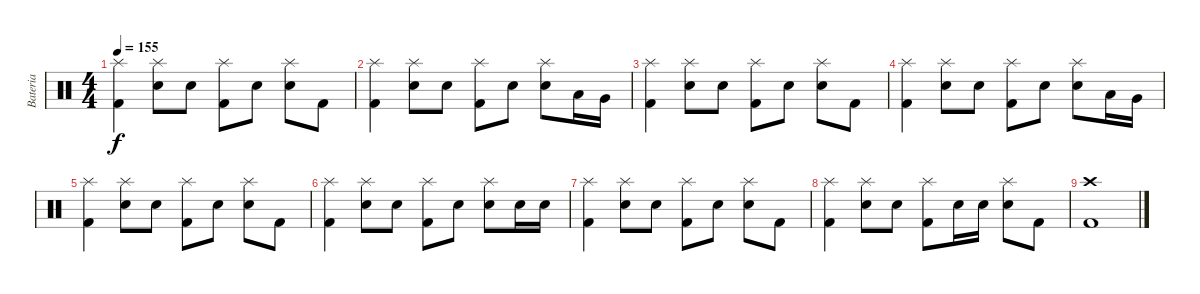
\track ("Bateria" "Bateria") {instrument percussion}
\staff {score}
\articulation defaults
\ts (4 4)
\tempo 155
\clef neutral
\ks c
("Splash (hit)" "Kick (hit) 2").4{dy f} ("Splash (hit)" "Electric Snare (hit)").8 "Electric Snare (hit)".8 ("Splash (hit)" "Kick (hit) 2").8 "Electric Snare (hit)".8 ("Splash (hit)" "Electric Snare (hit)").8 "Kick (hit) 2".8 |
("Splash (hit)" "Kick (hit) 2").4 ("Splash (hit)" "Electric Snare (hit)").8 "Electric Snare (hit)".8 ("Splash (hit)" "Kick (hit) 2").8 "Electric Snare (hit)".8 ("Splash (hit)" "Electric Snare (hit)").8 "Low Tom (hit)".16 "Very Low Tom (hit)".16 |
("Splash (hit)" "Kick (hit) 2").4 ("Splash (hit)" "Electric Snare (hit)").8 "Electric Snare (hit)".8 ("Splash (hit)" "Kick (hit) 2").8 "Electric Snare (hit)".8 ("Splash (hit)" "Electric Snare (hit)").8 "Kick (hit) 2".8 |
("Splash (hit)" "Kick (hit) 2").4 ("Splash (hit)" "Electric Snare (hit)").8 "Electric Snare (hit)".8 ("Splash (hit)" "Kick (hit) 2").8 "Electric Snare (hit)".8 ("Splash (hit)" "Electric Snare (hit)").8 "Low Tom (hit)".16 "Very Low Tom (hit)".16 |
("Splash (hit)" "Kick (hit) 2").4 ("Splash (hit)" "Electric Snare (hit)").8 "Electric Snare (hit)".8 ("Splash (hit)" "Kick (hit) 2").8 "Electric Snare (hit)".8 ("Splash (hit)" "Electric Snare (hit)").8 "Kick (hit) 2".8 |
("Splash (hit)" "Kick (hit) 2").4 ("Splash (hit)" "Electric Snare (hit)").8 "Electric Snare (hit)".8 ("Splash (hit)" "Kick (hit) 2").8 "Electric Snare (hit)".8 ("Splash (hit)" "Electric Snare (hit)").8 "Electric Snare (hit)".16 "Electric Snare (hit)".16 |
("Splash (hit)" "Kick (hit) 2").4 ("Splash (hit)" "Electric Snare (hit)").8 "Electric Snare (hit)".8 ("Splash (hit)" "Kick (hit) 2").8 "Electric Snare (hit)".8 ("Splash (hit)" "Electric Snare (hit)").8 "Kick (hit) 2".8 |
("Splash (hit)" "Kick (hit) 2").4 ("Splash (hit)" "Electric Snare (hit)").8 "Electric Snare (hit)".8 ("Splash (hit)" "Kick (hit) 2").8 "Electric Snare (hit)".16 "Electric Snare (hit)".16 ("Splash (hit)" "Electric Snare (hit)").8 "Kick (hit) 2".8 |
("Crash high (hit)" "Kick (hit) 2").1
